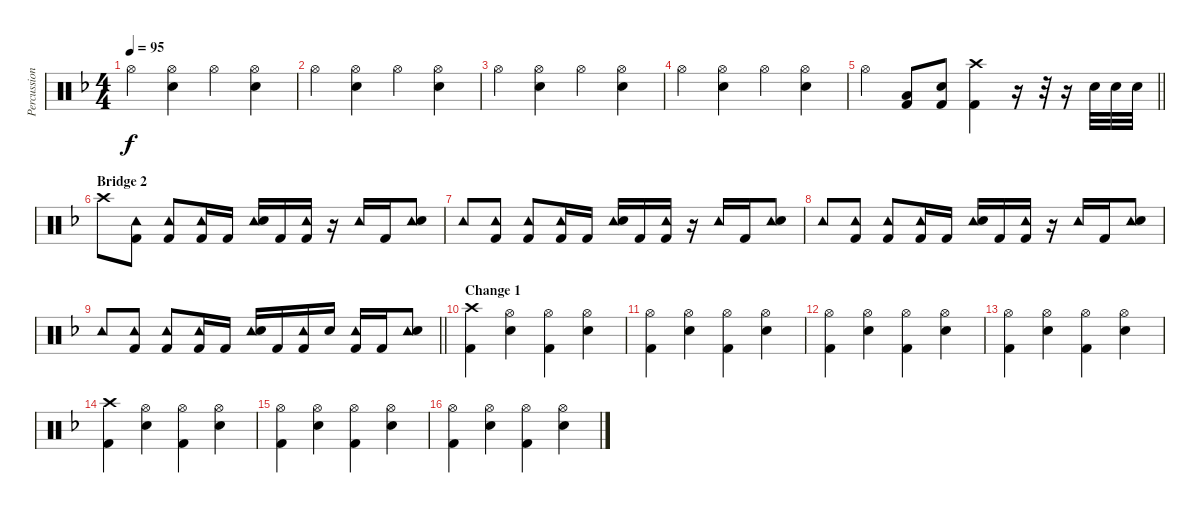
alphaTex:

\track ("Percussions (Scott Travis)" "Percussion") {instrument percussion}
\staff {score}
\articulation defaults
\ts (4 4)
\tempo 95
\clef neutral
\ks dminor "Hi-Hat (open)".4{dy f}
("Hi-Hat (open)" "Snare (hit) 2").4 "Hi-Hat (open)".4 ("Hi-Hat (open)" "Snare (hit) 2").4 |
"Hi-Hat (open)".4 ("Hi-Hat (open)" "Snare (hit) 2").4 "Hi-Hat (open)".4 ("Hi-Hat (open)" "Snare (hit) 2").4 |
"Hi-Hat (open)".4 ("Hi-Hat (open)" "Snare (hit) 2").4 "Hi-Hat (open)".4 ("Hi-Hat (open)" "Snare (hit) 2").4 |
"Hi-Hat (open)".4 ("Hi-Hat (open)" "Snare (hit) 2").4 "Hi-Hat (open)".4 ("Hi-Hat (open)" "Snare (hit) 2").4 |
\barLineRight lightlight "Hi-Hat (open)".4
("Low Tom (hit)" "Kick (hit) 2").8 ("Snare (hit) 2" "Kick (hit) 2").8 ("Crash high (hit)" "Kick (hit) 2").4 r.16 r.32 r.16 "Snare (hit) 2".32 "Snare (hit) 2".32 "Snare (hit) 2".32 |
\section ("" "Bridge 2")
"Crash high (hit)".8 ("Tambourine (hit)" "Kick (hit) 2").8 ("Tambourine (hit)" "Kick (hit) 2").8 ("Tambourine (hit)" "Kick (hit) 2").16 "Kick (hit) 2".16 ("Tambourine (hit)" "Snare (hit) 2").16 "Kick (hit) 2".16 ("Tambourine (hit)" "Kick (hit) 2").16 r.16 "Tambourine (hit)".16 "Kick (hit) 2".16 ("Tambourine (hit)" "Snare (hit) 2").8 |
"Tambourine (hit)".8 ("Tambourine (hit)" "Kick (hit) 2").8 ("Tambourine (hit)" "Kick (hit) 2").8 ("Tambourine (hit)" "Kick (hit) 2").16 "Kick (hit) 2".16 ("Tambourine (hit)" "Snare (hit) 2").16 "Kick (hit) 2".16 ("Tambourine (hit)" "Kick (hit) 2").16 r.16 "Tambourine (hit)".16 "Kick (hit) 2".16 ("Tambourine (hit)" "Snare (hit) 2").8 |
"Tambourine (hit)".8 ("Tambourine (hit)" "Kick (hit) 2").8 ("Tambourine (hit)" "Kick (hit) 2").8 ("Tambourine (hit)" "Kick (hit) 2").16 "Kick (hit) 2".16 ("Tambourine (hit)" "Snare (hit) 2").16 "Kick (hit) 2".16 ("Tambourine (hit)" "Kick (hit) 2").16 r.16 "Tambourine (hit)".16 "Kick (hit) 2".16 ("Tambourine (hit)" "Snare (hit) 2").8 |
\barLineRight lightlight "Tambourine (hit)".8
("Tambourine (hit)" "Kick (hit) 2").8 ("Tambourine (hit)" "Kick (hit) 2").8 ("Tambourine (hit)" "Kick (hit) 2").16 "Kick (hit) 2".16 ("Tambourine (hit)" "Snare (hit) 2").16 "Kick (hit) 2".16 ("Tambourine (hit)" "Kick (hit) 2").16 "Snare (hit) 2".16 ("Tambourine (hit)" "Kick (hit) 2").16 "Kick (hit) 2".16 ("Tambourine (hit)" "Snare (hit) 2").8 |
\section ("" "Change 1")
("Crash high (hit)" "Kick (hit) 2").4 ("Hi-Hat (open)" "Snare (hit) 2").4 ("Hi-Hat (open)" "Kick (hit) 2").4 ("Hi-Hat (open)" "Snare (hit) 2").4 |
("Hi-Hat (open)" "Kick (hit) 2").4 ("Hi-Hat (open)" "Snare (hit) 2").4 ("Hi-Hat (open)" "Kick (hit) 2").4 ("Hi-Hat (open)" "Snare (hit) 2").4 |
("Hi-Hat (open)" "Kick (hit) 2").4 ("Hi-Hat (open)" "Snare (hit) 2").4 ("Hi-Hat (open)" "Kick (hit) 2").4 ("Hi-Hat (open)" "Snare (hit) 2").4 |
("Hi-Hat (open)" "Kick (hit) 2").4 ("Hi-Hat (open)" "Snare (hit) 2").4 ("Hi-Hat (open)" "Kick (hit) 2").4 ("Hi-Hat (open)" "Snare (hit) 2").4 |
("Crash high (hit)" "Kick (hit) 2").4 ("Hi-Hat (open)" "Snare (hit) 2").4 ("Hi-Hat (open)" "Kick (hit) 2").4 ("Hi-Hat (open)" "Snare (hit) 2").4 |
("Hi-Hat (open)" "Kick (hit) 2").4 ("Hi-Hat (open)" "Snare (hit) 2").4 ("Hi-Hat (open)" "Kick (hit) 2").4 ("Hi-Hat (open)" "Snare (hit) 2").4 |
("Hi-Hat (open)" "Kick (hit) 2").4 ("Hi-Hat (open)" "Snare (hit) 2").4 ("Hi-Hat (open)" "Kick (hit) 2").4 ("Hi-Hat (open)" "Snare (hit) 2").4
